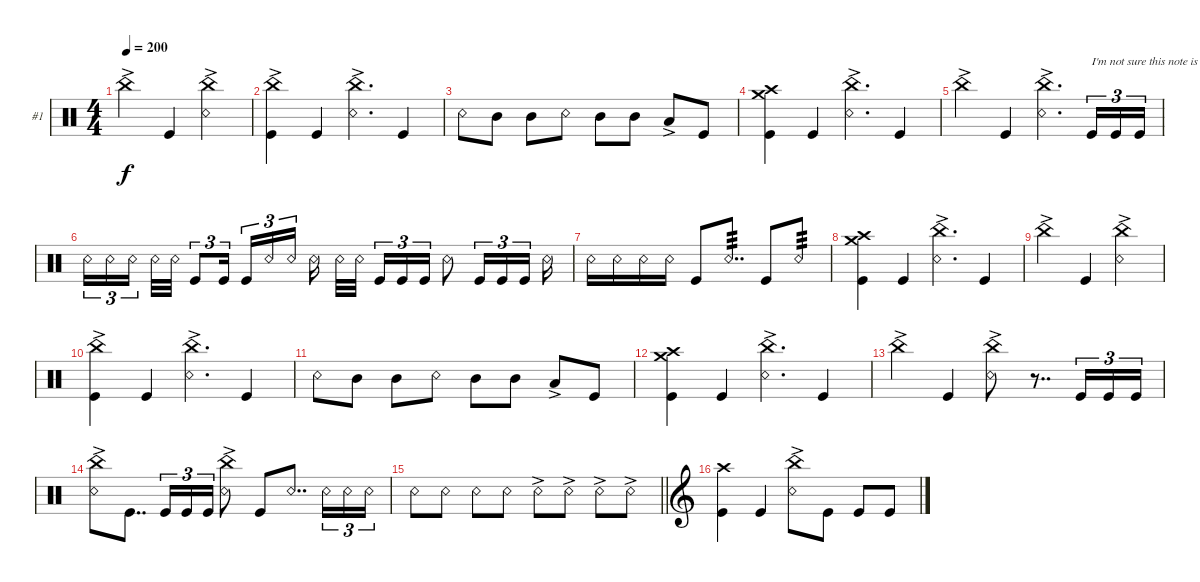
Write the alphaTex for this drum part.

\bracketExtendMode groupsimilarinstruments
\firstSystemTrackNameOrientation horizontal
\otherSystemsTrackNameOrientation horizontal
\track ("Joey Jordison" "#1") {instrument percussion}
\staff {score}
\articulation defaults
\ts (4 4)
\tempo 200
\clef neutral
\ks c "China (hit)"{ac}.4{dy f} "Kick (hit)".4
("Snare (rim shot)" "China (hit)"{ac}).4 |
("Kick (hit)" "China (hit)"{ac}).4 "Kick (hit)".4 ("Snare (rim shot)" "China (hit)"{ac}).4{d} "Kick (hit)".4 |
"Snare (rim shot)".8 "Mid Tom (hit)".8 "Mid Tom (hit)".8 "Snare (rim shot)".8 "Mid Tom (hit)".8 "Mid Tom (hit)".8 "Low Tom (hit)"{ac}.8 "Kick (hit)".8 |
("Kick (hit)" "Crash medium (hit)" "Crash high (hit)").4 "Kick (hit)".4 ("Snare (rim shot)" "China (hit)"{ac}).4{d} "Kick (hit)".4 |
"China (hit)"{ac}.4 "Kick (hit)".4 ("Snare (rim shot)" "China (hit)"{ac}).4{d} "Kick (hit)".16{tu (3 2) txt "I'm not sure this note is accurate :/"} "Kick (hit)".16{tu (3 2)} "Kick (hit)".16{tu (3 2)} |
"Snare (rim shot)".16{tu (3 2)} "Snare (rim shot)".16{tu (3 2)} "Snare (rim shot)".16{tu (3 2)} "Snare (rim shot)".32 "Snare (rim shot)".32 "Kick (hit)".8{tu (3 2)} "Kick (hit)".16{tu (3 2)} "Kick (hit)".16{tu (3 2)} "Snare (rim shot)".16{tu (3 2)} "Snare (rim shot)".16{tu (3 2)} "Snare (rim shot)".16 "Snare (rim shot)".32 "Snare (rim shot)".32 "Kick (hit)".16{tu (3 2)} "Kick (hit)".16{tu (3 2)} "Kick (hit)".16{tu (3 2)} "Snare (rim shot)".8 "Kick (hit)".16{tu (3 2)} "Kick (hit)".16{tu (3 2)} "Kick (hit)".16{tu (3 2)} "Snare (rim shot)".16 |
"Snare (rim shot)".16 "Snare (rim shot)".16 "Snare (rim shot)".16 "Snare (rim shot)".16 "Kick (hit)".8 "Snare (rim shot)".8{dd tp 3} "Kick (hit)".8 "Snare (rim shot)".8{tp 3} |
("Crash medium (hit)" "Crash high (hit)" "Kick (hit)").4 "Kick (hit)".4 ("Snare (rim shot)" "China (hit)"{ac}).4{d} "Kick (hit)".4 |
"China (hit)"{ac}.4 "Kick (hit)".4 ("Snare (rim shot)" "China (hit)"{ac}).4 |
("Kick (hit)" "China (hit)"{ac}).4 "Kick (hit)".4 ("Snare (rim shot)" "China (hit)"{ac}).4{d} "Kick (hit)".4 |
"Snare (rim shot)".8 "Mid Tom (hit)".8 "Mid Tom (hit)".8 "Snare (rim shot)".8 "Mid Tom (hit)".8 "Mid Tom (hit)".8 "Low Tom (hit)"{ac}.8 "Kick (hit)".8 |
("Kick (hit)" "Crash medium (hit)" "Crash high (hit)").4 "Kick (hit)".4 ("Snare (rim shot)" "China (hit)"{ac}).4{d} "Kick (hit)".4 |
"China (hit)"{ac}.4 "Kick (hit)".4 ("Snare (rim shot)" "China (hit)"{ac}).8 r.8{dd} "Kick (hit)".16{tu (3 2)} "Kick (hit)".16{tu (3 2)} "Kick (hit)".16{tu (3 2)} |
("Snare (rim shot)" "China (hit)"{ac}).8 "Kick (hit)".8{dd} "Kick (hit)".16{tu (3 2)} "Kick (hit)".16{tu (3 2)} "Kick (hit)".16{tu (3 2)} ("Snare (rim shot)" "China (hit)"{ac}).8 "Kick (hit)".8 "Snare (rim shot)".8{dd} "Snare (rim shot)".16{tu (3 2)} "Snare (rim shot)".16{tu (3 2)} "Snare (rim shot)".16{tu (3 2)} |
\barLineRight lightlight "Snare (rim shot)".8 "Snare (rim shot)".8 "Snare (rim shot)".8 "Snare (rim shot)".8 "Snare (rim shot)"{ac}.8 "Snare (rim shot)"{ac}.8 "Snare (rim shot)"{ac}.8 "Snare (rim shot)"{ac}.8
|
\clef g2
("Kick (hit)" "Crash high (hit)").4 "Kick (hit)".4 ("Snare (rim shot)" "China (hit)"{ac}).8 "Kick (hit)".8 "Kick (hit)".8 "Kick (hit)".8
